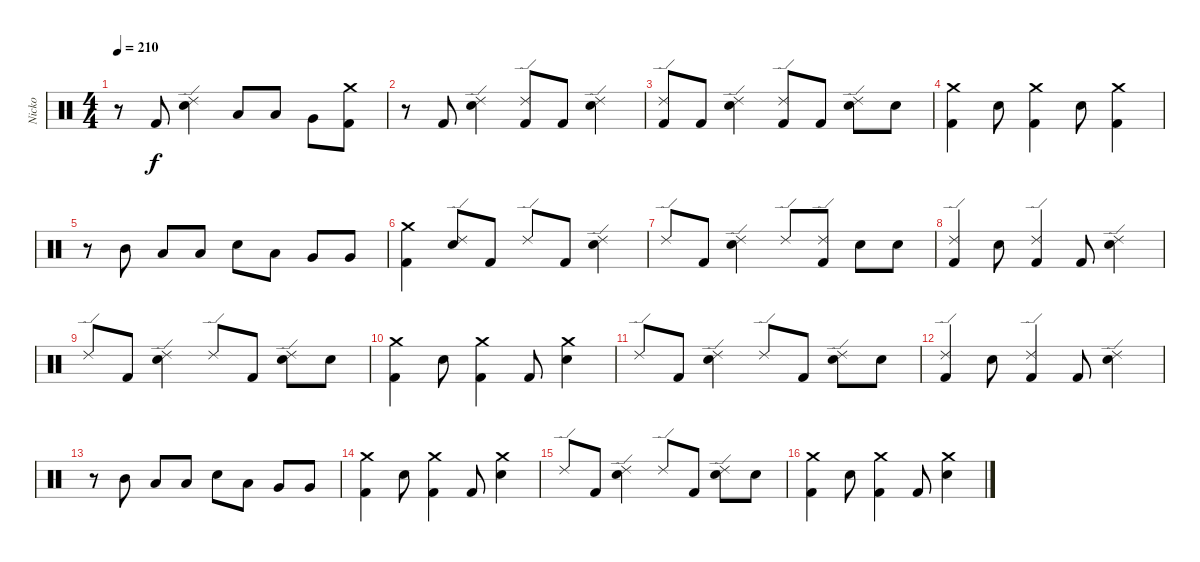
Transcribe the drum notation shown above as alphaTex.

\track ("Nicko" "Nicko") {instrument percussion}
\staff {score}
\articulation defaults
\ts (4 4)
\tempo 210
\clef neutral
\ks c
r.8{dy f} "Kick (hit) 2".8 ("Ride (edge) 2" "Electric Snare (hit)").4 "Low Tom (hit)".8 "Low Tom (hit)".8 "Very Low Tom (hit)".8 ("Crash medium (hit)" "Kick (hit) 2").8 |
r.8 "Kick (hit) 2".8 ("Ride (edge) 2" "Electric Snare (hit)").4 ("Ride (edge) 2" "Kick (hit) 2").8 "Kick (hit) 2".8 ("Ride (edge) 2" "Electric Snare (hit)").4 |
("Ride (edge) 2" "Kick (hit) 2").8 "Kick (hit) 2".8 ("Ride (edge) 2" "Electric Snare (hit)").4 ("Ride (edge) 2" "Kick (hit) 2").8 "Kick (hit) 2".8 ("Ride (edge) 2" "Electric Snare (hit)").8 "Electric Snare (hit)".8 |
("Crash medium (hit)" "Kick (hit) 2").4 "Electric Snare (hit)".8 ("Crash medium (hit)" "Kick (hit) 2").4 "Electric Snare (hit)".8 ("Crash medium (hit)" "Kick (hit) 2").4 |
r.8 "Mid Tom (hit)".8 "Low Tom (hit)".8 "Low Tom (hit)".8 "Electric Snare (hit)".8 "Low Tom (hit)".8 "Very Low Tom (hit)".8 "Very Low Tom (hit)".8 |
("Crash medium (hit)" "Kick (hit) 2").4 ("Ride (edge) 2" "Electric Snare (hit)").8 "Kick (hit) 2".8 "Ride (edge) 2".8 "Kick (hit) 2".8 ("Ride (edge) 2" "Electric Snare (hit)").4 |
"Ride (edge) 2".8 "Kick (hit) 2".8 ("Ride (edge) 2" "Electric Snare (hit)").4 "Ride (edge) 2".8 ("Ride (edge) 2" "Kick (hit) 2").8 "Electric Snare (hit)".8 "Electric Snare (hit)".8 |
("Ride (edge) 2" "Kick (hit) 2").4 "Electric Snare (hit)".8 ("Ride (edge) 2" "Kick (hit) 2").4 "Kick (hit) 2".8 ("Ride (edge) 2" "Electric Snare (hit)").4 |
"Ride (edge) 2".8 "Kick (hit) 2".8 ("Ride (edge) 2" "Electric Snare (hit)").4 "Ride (edge) 2".8 "Kick (hit) 2".8 ("Ride (edge) 2" "Electric Snare (hit)").8 "Electric Snare (hit)".8 |
("Crash medium (hit)" "Kick (hit) 2").4 "Electric Snare (hit)".8 ("Crash medium (hit)" "Kick (hit) 2").4 "Kick (hit) 2".8 ("Crash medium (hit)" "Electric Snare (hit)").4 |
"Ride (edge) 2".8 "Kick (hit) 2".8 ("Ride (edge) 2" "Electric Snare (hit)").4 "Ride (edge) 2".8 "Kick (hit) 2".8 ("Ride (edge) 2" "Electric Snare (hit)").8 "Electric Snare (hit)".8 |
("Ride (edge) 2" "Kick (hit) 2").4 "Electric Snare (hit)".8 ("Ride (edge) 2" "Kick (hit) 2").4 "Kick (hit) 2".8 ("Ride (edge) 2" "Electric Snare (hit)").4 |
r.8 "Mid Tom (hit)".8 "Low Tom (hit)".8 "Low Tom (hit)".8 "Electric Snare (hit)".8 "Low Tom (hit)".8 "Very Low Tom (hit)".8 "Very Low Tom (hit)".8 |
("Crash medium (hit)" "Kick (hit) 2").4 "Electric Snare (hit)".8 ("Crash medium (hit)" "Kick (hit) 2").4 "Kick (hit) 2".8 ("Crash medium (hit)" "Electric Snare (hit)").4 |
"Ride (edge) 2".8 "Kick (hit) 2".8 ("Ride (edge) 2" "Electric Snare (hit)").4 "Ride (edge) 2".8 "Kick (hit) 2".8 ("Ride (edge) 2" "Electric Snare (hit)").8 "Electric Snare (hit)".8 |
("Crash medium (hit)" "Kick (hit) 2").4 "Electric Snare (hit)".8 ("Crash medium (hit)" "Kick (hit) 2").4 "Kick (hit) 2".8 ("Crash medium (hit)" "Electric Snare (hit)").4
